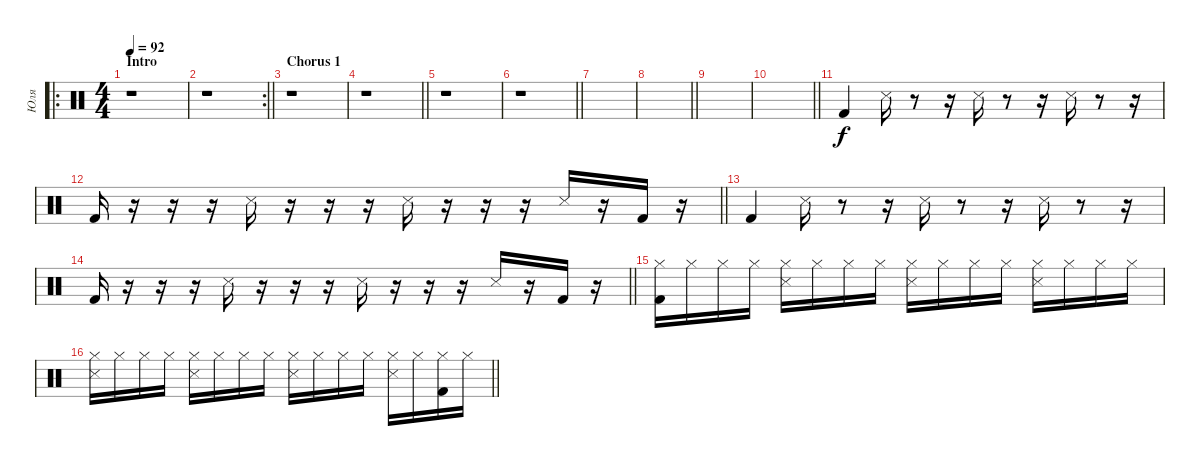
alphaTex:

\track ("Юля" "Юля") {instrument percussion}
\staff {score}
\articulation defaults
\ro
\ts (4 4)
\section ("" "Intro")
\tempo 92
\clef neutral
\ks c
r.1{dy f} |
\rc 2
\barLineRight lightlight
r.1 |
\section ("" "Chorus 1")
r.1 |
\barLineRight lightlight
r.1 |
r.1 |
\barLineRight lightlight
r.1 |
|
\barLineRight lightlight
|
|
\barLineRight lightlight
|
"Kick (hit) 2".4 "Snare (side stick) 3".16 r.8 r.16 "Snare (side stick) 3".16 r.8 r.16 "Snare (side stick) 3".16 r.8 r.16 |
\barLineRight lightlight "Kick (hit) 2".16
r.16 r.16 r.16 "Snare (side stick) 3".16 r.16 r.16 r.16 "Snare (side stick) 3".16 r.16 r.16 r.16 "Snare (side stick) 3".16 r.16 "Kick (hit) 2".16 r.16 |
"Kick (hit) 2".4 "Snare (side stick) 3".16 r.8 r.16 "Snare (side stick) 3".16 r.8 r.16 "Snare (side stick) 3".16 r.8 r.16 |
\barLineRight lightlight "Kick (hit) 2".16
r.16 r.16 r.16 "Snare (side stick) 3".16 r.16 r.16 r.16 "Snare (side stick) 3".16 r.16 r.16 r.16 "Snare (side stick) 3".16 r.16 "Kick (hit) 2".16 r.16 |
("Hi-Hat (closed)" "Kick (hit) 2").16 "Hi-Hat (closed)".16 "Hi-Hat (closed)".16 "Hi-Hat (closed)".16 ("Hi-Hat (closed)" "Snare (side stick) 3").16 "Hi-Hat (closed)".16 "Hi-Hat (closed)".16 "Hi-Hat (closed)".16 ("Hi-Hat (closed)" "Snare (side stick) 3").16 "Hi-Hat (closed)".16 "Hi-Hat (closed)".16 "Hi-Hat (closed)".16 ("Hi-Hat (closed)" "Snare (side stick) 3").16 "Hi-Hat (closed)".16 "Hi-Hat (closed)".16 "Hi-Hat (closed)".16 |
\barLineRight lightlight
("Hi-Hat (closed)" "Snare (side stick) 3").16 "Hi-Hat (closed)".16 "Hi-Hat (closed)".16 "Hi-Hat (closed)".16 ("Hi-Hat (closed)" "Snare (side stick) 3").16 "Hi-Hat (closed)".16 "Hi-Hat (closed)".16 "Hi-Hat (closed)".16 ("Hi-Hat (closed)" "Snare (side stick) 3").16 "Hi-Hat (closed)".16 "Hi-Hat (closed)".16 "Hi-Hat (closed)".16 ("Hi-Hat (closed)" "Snare (side stick) 3").16 "Hi-Hat (closed)".16 ("Hi-Hat (closed)" "Kick (hit) 2").16 "Hi-Hat (closed)".16
